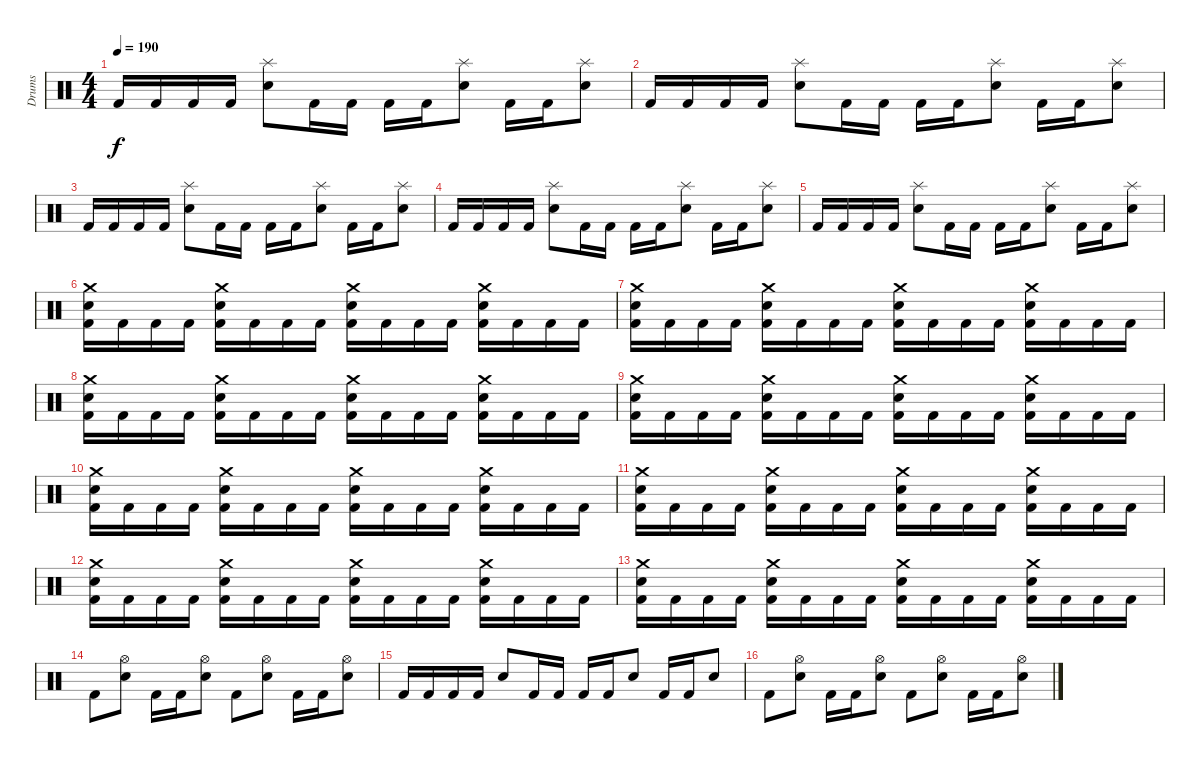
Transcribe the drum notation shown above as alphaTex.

\track ("Drums" "Drums") {instrument percussion}
\staff {score}
\articulation defaults
\ts (4 4)
\tempo 190
\clef neutral
\ks c "Kick (hit) 2".16{dy f} "Kick (hit) 2".16 "Kick (hit) 2".16 "Kick (hit) 2".16
("Splash (hit)" "Snare (hit) 2").8 "Kick (hit) 2".16 "Kick (hit) 2".16 "Kick (hit) 2".16 "Kick (hit) 2".16 ("Splash (hit)" "Snare (hit) 2").8 "Kick (hit) 2".16 "Kick (hit) 2".16 ("Splash (hit)" "Snare (hit) 2").8 |
"Kick (hit) 2".16 "Kick (hit) 2".16 "Kick (hit) 2".16 "Kick (hit) 2".16 ("Splash (hit)" "Snare (hit) 2").8 "Kick (hit) 2".16 "Kick (hit) 2".16 "Kick (hit) 2".16 "Kick (hit) 2".16 ("Splash (hit)" "Snare (hit) 2").8 "Kick (hit) 2".16 "Kick (hit) 2".16 ("Splash (hit)" "Snare (hit) 2").8 |
"Kick (hit) 2".16 "Kick (hit) 2".16 "Kick (hit) 2".16 "Kick (hit) 2".16 ("Splash (hit)" "Snare (hit) 2").8 "Kick (hit) 2".16 "Kick (hit) 2".16 "Kick (hit) 2".16 "Kick (hit) 2".16 ("Splash (hit)" "Snare (hit) 2").8 "Kick (hit) 2".16 "Kick (hit) 2".16 ("Splash (hit)" "Snare (hit) 2").8 |
"Kick (hit) 2".16 "Kick (hit) 2".16 "Kick (hit) 2".16 "Kick (hit) 2".16 ("Splash (hit)" "Snare (hit) 2").8 "Kick (hit) 2".16 "Kick (hit) 2".16 "Kick (hit) 2".16 "Kick (hit) 2".16 ("Splash (hit)" "Snare (hit) 2").8 "Kick (hit) 2".16 "Kick (hit) 2".16 ("Splash (hit)" "Snare (hit) 2").8 |
"Kick (hit) 2".16 "Kick (hit) 2".16 "Kick (hit) 2".16 "Kick (hit) 2".16 ("Splash (hit)" "Snare (hit) 2").8 "Kick (hit) 2".16 "Kick (hit) 2".16 "Kick (hit) 2".16 "Kick (hit) 2".16 ("Splash (hit)" "Snare (hit) 2").8 "Kick (hit) 2".16 "Kick (hit) 2".16 ("Splash (hit)" "Snare (hit) 2").8 |
("Crash medium (hit)" "Snare (hit) 2" "Kick (hit) 2").16 "Kick (hit) 2".16 "Kick (hit) 2".16 "Kick (hit) 2".16 ("Crash medium (hit)" "Snare (hit) 2" "Kick (hit) 2").16 "Kick (hit) 2".16 "Kick (hit) 2".16 "Kick (hit) 2".16 ("Crash medium (hit)" "Snare (hit) 2" "Kick (hit) 2").16 "Kick (hit) 2".16 "Kick (hit) 2".16 "Kick (hit) 2".16 ("Crash medium (hit)" "Snare (hit) 2" "Kick (hit) 2").16 "Kick (hit) 2".16 "Kick (hit) 2".16 "Kick (hit) 2".16 |
("Crash medium (hit)" "Snare (hit) 2" "Kick (hit) 2").16 "Kick (hit) 2".16 "Kick (hit) 2".16 "Kick (hit) 2".16 ("Crash medium (hit)" "Snare (hit) 2" "Kick (hit) 2").16 "Kick (hit) 2".16 "Kick (hit) 2".16 "Kick (hit) 2".16 ("Crash medium (hit)" "Snare (hit) 2" "Kick (hit) 2").16 "Kick (hit) 2".16 "Kick (hit) 2".16 "Kick (hit) 2".16 ("Crash medium (hit)" "Snare (hit) 2" "Kick (hit) 2").16 "Kick (hit) 2".16 "Kick (hit) 2".16 "Kick (hit) 2".16 |
("Crash medium (hit)" "Snare (hit) 2" "Kick (hit) 2").16 "Kick (hit) 2".16 "Kick (hit) 2".16 "Kick (hit) 2".16 ("Crash medium (hit)" "Snare (hit) 2" "Kick (hit) 2").16 "Kick (hit) 2".16 "Kick (hit) 2".16 "Kick (hit) 2".16 ("Crash medium (hit)" "Snare (hit) 2" "Kick (hit) 2").16 "Kick (hit) 2".16 "Kick (hit) 2".16 "Kick (hit) 2".16 ("Crash medium (hit)" "Snare (hit) 2" "Kick (hit) 2").16 "Kick (hit) 2".16 "Kick (hit) 2".16 "Kick (hit) 2".16 |
("Crash medium (hit)" "Snare (hit) 2" "Kick (hit) 2").16 "Kick (hit) 2".16 "Kick (hit) 2".16 "Kick (hit) 2".16 ("Crash medium (hit)" "Snare (hit) 2" "Kick (hit) 2").16 "Kick (hit) 2".16 "Kick (hit) 2".16 "Kick (hit) 2".16 ("Crash medium (hit)" "Snare (hit) 2" "Kick (hit) 2").16 "Kick (hit) 2".16 "Kick (hit) 2".16 "Kick (hit) 2".16 ("Crash medium (hit)" "Snare (hit) 2" "Kick (hit) 2").16 "Kick (hit) 2".16 "Kick (hit) 2".16 "Kick (hit) 2".16 |
("Crash medium (hit)" "Snare (hit) 2" "Kick (hit) 2").16 "Kick (hit) 2".16 "Kick (hit) 2".16 "Kick (hit) 2".16 ("Crash medium (hit)" "Snare (hit) 2" "Kick (hit) 2").16 "Kick (hit) 2".16 "Kick (hit) 2".16 "Kick (hit) 2".16 ("Crash medium (hit)" "Snare (hit) 2" "Kick (hit) 2").16 "Kick (hit) 2".16 "Kick (hit) 2".16 "Kick (hit) 2".16 ("Crash medium (hit)" "Snare (hit) 2" "Kick (hit) 2").16 "Kick (hit) 2".16 "Kick (hit) 2".16 "Kick (hit) 2".16 |
("Crash medium (hit)" "Snare (hit) 2" "Kick (hit) 2").16 "Kick (hit) 2".16 "Kick (hit) 2".16 "Kick (hit) 2".16 ("Crash medium (hit)" "Snare (hit) 2" "Kick (hit) 2").16 "Kick (hit) 2".16 "Kick (hit) 2".16 "Kick (hit) 2".16 ("Crash medium (hit)" "Snare (hit) 2" "Kick (hit) 2").16 "Kick (hit) 2".16 "Kick (hit) 2".16 "Kick (hit) 2".16 ("Crash medium (hit)" "Snare (hit) 2" "Kick (hit) 2").16 "Kick (hit) 2".16 "Kick (hit) 2".16 "Kick (hit) 2".16 |
("Crash medium (hit)" "Snare (hit) 2" "Kick (hit) 2").16 "Kick (hit) 2".16 "Kick (hit) 2".16 "Kick (hit) 2".16 ("Crash medium (hit)" "Snare (hit) 2" "Kick (hit) 2").16 "Kick (hit) 2".16 "Kick (hit) 2".16 "Kick (hit) 2".16 ("Crash medium (hit)" "Snare (hit) 2" "Kick (hit) 2").16 "Kick (hit) 2".16 "Kick (hit) 2".16 "Kick (hit) 2".16 ("Crash medium (hit)" "Snare (hit) 2" "Kick (hit) 2").16 "Kick (hit) 2".16 "Kick (hit) 2".16 "Kick (hit) 2".16 |
("Crash medium (hit)" "Snare (hit) 2" "Kick (hit) 2").16 "Kick (hit) 2".16 "Kick (hit) 2".16 "Kick (hit) 2".16 ("Crash medium (hit)" "Snare (hit) 2" "Kick (hit) 2").16 "Kick (hit) 2".16 "Kick (hit) 2".16 "Kick (hit) 2".16 ("Crash medium (hit)" "Snare (hit) 2" "Kick (hit) 2").16 "Kick (hit) 2".16 "Kick (hit) 2".16 "Kick (hit) 2".16 ("Crash medium (hit)" "Snare (hit) 2" "Kick (hit) 2").16 "Kick (hit) 2".16 "Kick (hit) 2".16 "Kick (hit) 2".16 |
"Kick (hit) 2".8 ("Hi-Hat (open)" "Snare (hit) 2").8 "Kick (hit) 2".16 "Kick (hit) 2".16 ("Hi-Hat (open)" "Snare (hit) 2").8 "Kick (hit) 2".8 ("Hi-Hat (open)" "Snare (hit) 2").8 "Kick (hit) 2".16 "Kick (hit) 2".16 ("Hi-Hat (open)" "Snare (hit) 2").8 |
"Kick (hit) 2".16 "Kick (hit) 2".16 "Kick (hit) 2".16 "Kick (hit) 2".16 "Snare (hit) 2".8 "Kick (hit) 2".16 "Kick (hit) 2".16 "Kick (hit) 2".16 "Kick (hit) 2".16 "Snare (hit) 2".8 "Kick (hit) 2".16 "Kick (hit) 2".16 "Snare (hit) 2".8 |
"Kick (hit) 2".8 ("Hi-Hat (open)" "Snare (hit) 2").8 "Kick (hit) 2".16 "Kick (hit) 2".16 ("Hi-Hat (open)" "Snare (hit) 2").8 "Kick (hit) 2".8 ("Hi-Hat (open)" "Snare (hit) 2").8 "Kick (hit) 2".16 "Kick (hit) 2".16 ("Hi-Hat (open)" "Snare (hit) 2").8
